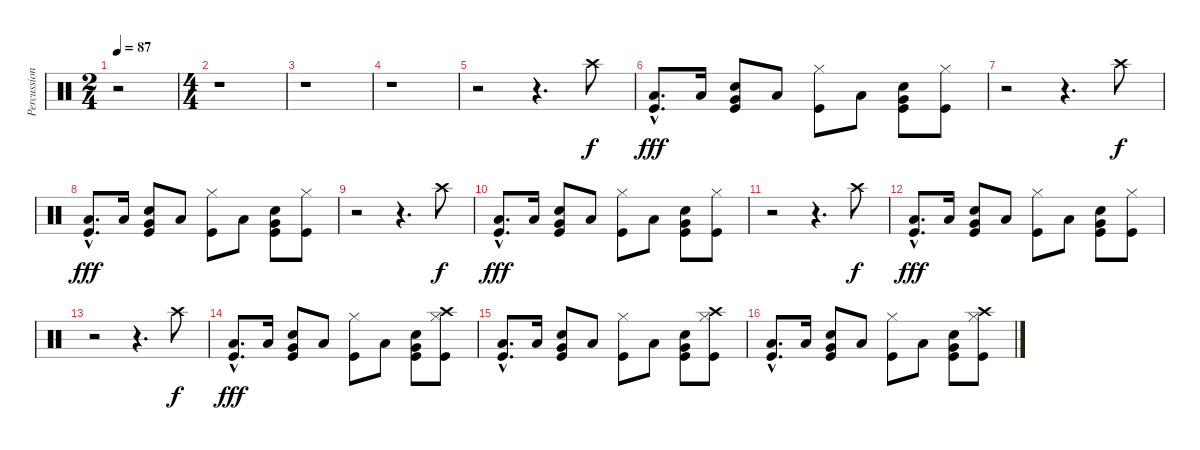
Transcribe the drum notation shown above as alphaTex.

\track ("Percussions" "Percussion") {instrument percussion}
\staff {score}
\articulation defaults
\ts (2 4)
\tempo 87
\clef neutral
\ks c
r.2{dy f} |
\ts (4 4)
r.1 |
r.1 |
r.1 |
r.2 r.4{d} "Crash high (hit)".8 |
("Low Floor Tom (hit)"{hac} "Kick (hit)"{hac}).8{d dy fff} "Low Floor Tom (hit)".16 ("Snare (hit) 2" "Very Low Tom (hit)" "Kick (hit)").8 "Low Floor Tom (hit)".8 ("Hi-Hat (closed)" "Kick (hit)").8 "Low Floor Tom (hit)".8 ("Snare (hit) 2" "Very Low Tom (hit)" "Kick (hit)").8 ("Hi-Hat (closed)" "Kick (hit)").8 |
r.2 r.4{d} "Crash high (hit)".8{dy f} |
("Low Floor Tom (hit)"{hac} "Kick (hit)"{hac}).8{d dy fff} "Low Floor Tom (hit)".16 ("Snare (hit) 2" "Very Low Tom (hit)" "Kick (hit)").8 "Low Floor Tom (hit)".8 ("Hi-Hat (closed)" "Kick (hit)").8 "Low Floor Tom (hit)".8 ("Snare (hit) 2" "Very Low Tom (hit)" "Kick (hit)").8 ("Hi-Hat (closed)" "Kick (hit)").8 |
r.2 r.4{d} "Crash high (hit)".8{dy f} |
("Low Floor Tom (hit)"{hac} "Kick (hit)"{hac}).8{d dy fff} "Low Floor Tom (hit)".16 ("Snare (hit) 2" "Very Low Tom (hit)" "Kick (hit)").8 "Low Floor Tom (hit)".8 ("Hi-Hat (closed)" "Kick (hit)").8 "Low Floor Tom (hit)".8 ("Snare (hit) 2" "Very Low Tom (hit)" "Kick (hit)").8 ("Hi-Hat (closed)" "Kick (hit)").8 |
r.2 r.4{d} "Crash high (hit)".8{dy f} |
("Low Floor Tom (hit)"{hac} "Kick (hit)"{hac}).8{d dy fff} "Low Floor Tom (hit)".16 ("Snare (hit) 2" "Very Low Tom (hit)" "Kick (hit)").8 "Low Floor Tom (hit)".8 ("Hi-Hat (closed)" "Kick (hit)").8 "Low Floor Tom (hit)".8 ("Snare (hit) 2" "Very Low Tom (hit)" "Kick (hit)").8 ("Hi-Hat (closed)" "Kick (hit)").8 |
r.2 r.4{d} "Crash high (hit)".8{dy f} |
("Low Floor Tom (hit)"{hac} "Kick (hit)"{hac}).8{d dy fff} "Low Floor Tom (hit)".16 ("Snare (hit) 2" "Very Low Tom (hit)" "Kick (hit)").8 "Low Floor Tom (hit)".8 ("Hi-Hat (closed)" "Kick (hit)").8 "Low Floor Tom (hit)".8 ("Snare (hit) 2" "Very Low Tom (hit)" "Kick (hit)").8 ("Crash high (hit)" "Hi-Hat (closed)" "Kick (hit)").8 |
("Low Floor Tom (hit)"{hac} "Kick (hit)"{hac}).8{d} "Low Floor Tom (hit)".16 ("Snare (hit) 2" "Very Low Tom (hit)" "Kick (hit)").8 "Low Floor Tom (hit)".8 ("Hi-Hat (closed)" "Kick (hit)").8 "Low Floor Tom (hit)".8 ("Snare (hit) 2" "Very Low Tom (hit)" "Kick (hit)").8 ("Crash high (hit)" "Hi-Hat (closed)" "Kick (hit)").8 |
("Low Floor Tom (hit)"{hac} "Kick (hit)"{hac}).8{d} "Low Floor Tom (hit)".16 ("Snare (hit) 2" "Very Low Tom (hit)" "Kick (hit)").8 "Low Floor Tom (hit)".8 ("Hi-Hat (closed)" "Kick (hit)").8 "Low Floor Tom (hit)".8 ("Snare (hit) 2" "Very Low Tom (hit)" "Kick (hit)").8 ("Crash high (hit)" "Hi-Hat (closed)" "Kick (hit)").8
